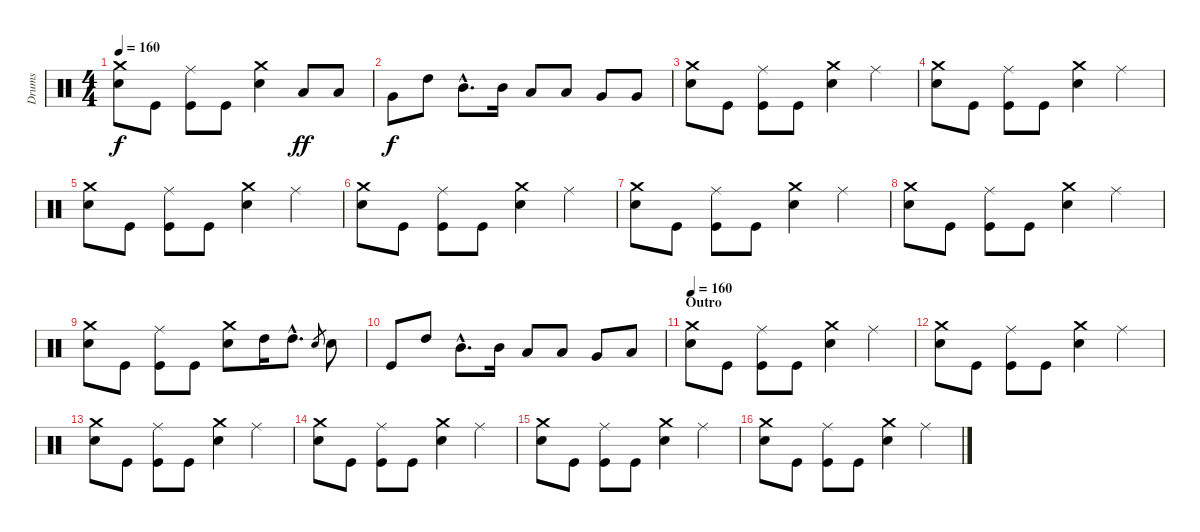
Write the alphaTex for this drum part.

\track ("Drums" "Drums") {instrument percussion}
\staff {score}
\articulation defaults
\ts (4 4)
\tempo 160
\clef neutral
\ks c
("Crash medium (hit)" "Electric Snare (hit)").8{dy f} "Kick (hit)".8 ("Ride (middle)" "Kick (hit)").8 "Kick (hit)".8 ("Crash medium (hit)" "Electric Snare (hit)").4 "Low Tom (hit)".8{dy ff} "Low Tom (hit)".8 |
"Very Low Tom (hit)".8{dy f} "High Tom (hit)".8 "Mid Tom (hit)"{hac}.8{d} "Mid Tom (hit)".16 "Low Tom (hit)".8 "Low Tom (hit)".8 "Very Low Tom (hit)".8 "Very Low Tom (hit)".8 |
("Crash medium (hit)" "Electric Snare (hit)").8 "Kick (hit)".8 ("Ride (middle)" "Kick (hit)").8 "Kick (hit)".8 ("Crash medium (hit)" "Electric Snare (hit)").4 "Ride (middle)".4 |
("Crash medium (hit)" "Electric Snare (hit)").8 "Kick (hit)".8 ("Ride (middle)" "Kick (hit)").8 "Kick (hit)".8 ("Crash medium (hit)" "Electric Snare (hit)").4 "Ride (middle)".4 |
("Crash medium (hit)" "Electric Snare (hit)").8 "Kick (hit)".8 ("Ride (middle)" "Kick (hit)").8 "Kick (hit)".8 ("Crash medium (hit)" "Electric Snare (hit)").4 "Ride (middle)".4 |
("Crash medium (hit)" "Electric Snare (hit)").8 "Kick (hit)".8 ("Ride (middle)" "Kick (hit)").8 "Kick (hit)".8 ("Crash medium (hit)" "Electric Snare (hit)").4 "Ride (middle)".4 |
("Crash medium (hit)" "Electric Snare (hit)").8 "Kick (hit)".8 ("Ride (middle)" "Kick (hit)").8 "Kick (hit)".8 ("Crash medium (hit)" "Electric Snare (hit)").4 "Ride (middle)".4 |
("Crash medium (hit)" "Electric Snare (hit)").8 "Kick (hit)".8 ("Ride (middle)" "Kick (hit)").8 "Kick (hit)".8 ("Crash medium (hit)" "Electric Snare (hit)").4 "Ride (middle)".4 |
("Crash medium (hit)" "Electric Snare (hit)").8 "Kick (hit)".8 ("Ride (middle)" "Kick (hit)").8 "Kick (hit)".8 ("Crash medium (hit)" "Electric Snare (hit)").8 "High Tom (hit)".16 "High Tom (hit)"{hac}.8{d} "Electric Snare (hit)".8{gr} "Electric Snare (hit)".8 |
"Kick (hit)".8 "High Tom (hit)".8 "Mid Tom (hit)"{hac}.8{d} "Mid Tom (hit)".16 "Low Tom (hit)".8 "Low Tom (hit)".8 "Very Low Tom (hit)".8 "Low Floor Tom (hit)".8 |
\section ("" "Outro")
\tempo 160
("Crash medium (hit)" "Electric Snare (hit)").8 "Kick (hit)".8 ("Ride (middle)" "Kick (hit)").8 "Kick (hit)".8 ("Crash medium (hit)" "Electric Snare (hit)").4 "Ride (middle)".4 |
("Crash medium (hit)" "Electric Snare (hit)").8 "Kick (hit)".8 ("Ride (middle)" "Kick (hit)").8 "Kick (hit)".8 ("Crash medium (hit)" "Electric Snare (hit)").4 "Ride (middle)".4 |
("Crash medium (hit)" "Electric Snare (hit)").8 "Kick (hit)".8 ("Ride (middle)" "Kick (hit)").8 "Kick (hit)".8 ("Crash medium (hit)" "Electric Snare (hit)").4 "Ride (middle)".4 |
("Crash medium (hit)" "Electric Snare (hit)").8 "Kick (hit)".8 ("Ride (middle)" "Kick (hit)").8 "Kick (hit)".8 ("Crash medium (hit)" "Electric Snare (hit)").4 "Ride (middle)".4 |
("Crash medium (hit)" "Electric Snare (hit)").8 "Kick (hit)".8 ("Ride (middle)" "Kick (hit)").8 "Kick (hit)".8 ("Crash medium (hit)" "Electric Snare (hit)").4 "Ride (middle)".4 |
("Crash medium (hit)" "Electric Snare (hit)").8 "Kick (hit)".8 ("Ride (middle)" "Kick (hit)").8 "Kick (hit)".8 ("Crash medium (hit)" "Electric Snare (hit)").4 "Ride (middle)".4
